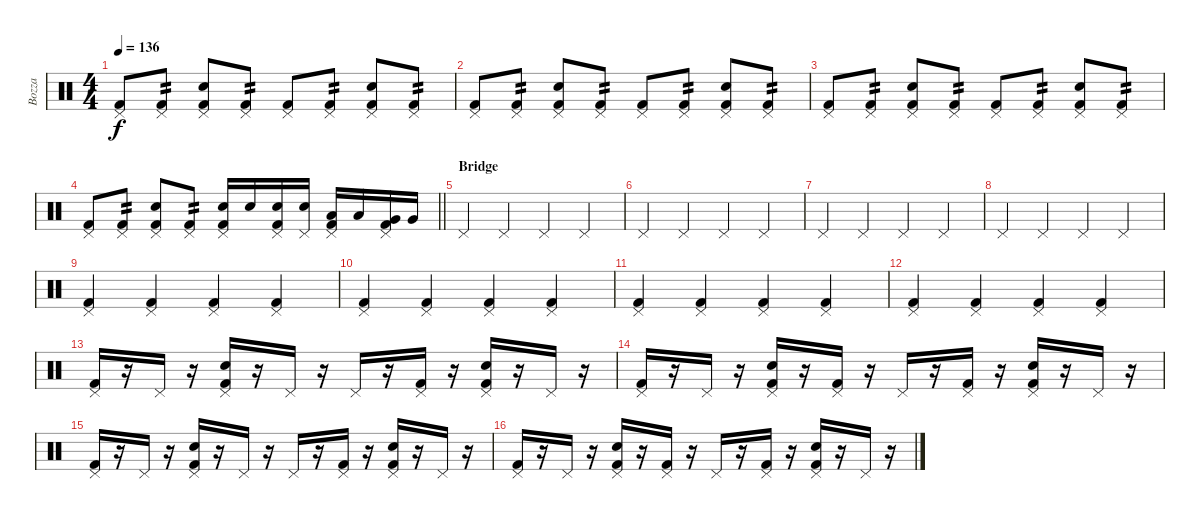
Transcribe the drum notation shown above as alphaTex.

\track ("Bozza" "Bozza") {instrument percussion}
\staff {score}
\articulation defaults
\ts (4 4)
\tempo 136
\clef neutral
\ks c
("Pedal Hi-Hat (hit)" "Kick (hit) 2").8{dy f} ("Pedal Hi-Hat (hit)" "Kick (hit) 2").8{tp 2} ("Pedal Hi-Hat (hit)" "Snare (hit) 2" "Kick (hit) 2").8 ("Pedal Hi-Hat (hit)" "Kick (hit) 2").8{tp 2} ("Pedal Hi-Hat (hit)" "Kick (hit) 2").8 ("Pedal Hi-Hat (hit)" "Kick (hit) 2").8{tp 2} ("Pedal Hi-Hat (hit)" "Snare (hit) 2" "Kick (hit) 2").8 ("Pedal Hi-Hat (hit)" "Kick (hit) 2").8{tp 2} |
("Pedal Hi-Hat (hit)" "Kick (hit) 2").8 ("Pedal Hi-Hat (hit)" "Kick (hit) 2").8{tp 2} ("Pedal Hi-Hat (hit)" "Snare (hit) 2" "Kick (hit) 2").8 ("Pedal Hi-Hat (hit)" "Kick (hit) 2").8{tp 2} ("Pedal Hi-Hat (hit)" "Kick (hit) 2").8 ("Pedal Hi-Hat (hit)" "Kick (hit) 2").8{tp 2} ("Pedal Hi-Hat (hit)" "Snare (hit) 2" "Kick (hit) 2").8 ("Pedal Hi-Hat (hit)" "Kick (hit) 2").8{tp 2} |
("Pedal Hi-Hat (hit)" "Kick (hit) 2").8 ("Pedal Hi-Hat (hit)" "Kick (hit) 2").8{tp 2} ("Pedal Hi-Hat (hit)" "Snare (hit) 2" "Kick (hit) 2").8 ("Pedal Hi-Hat (hit)" "Kick (hit) 2").8{tp 2} ("Pedal Hi-Hat (hit)" "Kick (hit) 2").8 ("Pedal Hi-Hat (hit)" "Kick (hit) 2").8{tp 2} ("Pedal Hi-Hat (hit)" "Snare (hit) 2" "Kick (hit) 2").8 ("Pedal Hi-Hat (hit)" "Kick (hit) 2").8{tp 2} |
\barLineRight lightlight
("Pedal Hi-Hat (hit)" "Kick (hit) 2").8 ("Pedal Hi-Hat (hit)" "Kick (hit) 2").8{tp 2} ("Pedal Hi-Hat (hit)" "Snare (hit) 2" "Kick (hit) 2").8 ("Pedal Hi-Hat (hit)" "Kick (hit) 2").8{tp 2} ("Pedal Hi-Hat (hit)" "Snare (hit) 2" "Kick (hit) 2").16 "Snare (hit) 2".16 ("Pedal Hi-Hat (hit)" "Snare (hit) 2" "Kick (hit) 2").16 ("Pedal Hi-Hat (hit)" "Snare (hit) 2").16 ("Pedal Hi-Hat (hit)" "Low Tom (hit)" "Kick (hit) 2").16 "Low Tom (hit)".16 ("Pedal Hi-Hat (hit)" "Very Low Tom (hit)" "Kick (hit) 2").16 "Very Low Tom (hit)".16 |
\section ("" "Bridge")
"Pedal Hi-Hat (hit)".4 "Pedal Hi-Hat (hit)".4 "Pedal Hi-Hat (hit)".4 "Pedal Hi-Hat (hit)".4 |
"Pedal Hi-Hat (hit)".4 "Pedal Hi-Hat (hit)".4 "Pedal Hi-Hat (hit)".4 "Pedal Hi-Hat (hit)".4 |
"Pedal Hi-Hat (hit)".4 "Pedal Hi-Hat (hit)".4 "Pedal Hi-Hat (hit)".4 "Pedal Hi-Hat (hit)".4 |
"Pedal Hi-Hat (hit)".4 "Pedal Hi-Hat (hit)".4 "Pedal Hi-Hat (hit)".4 "Pedal Hi-Hat (hit)".4 |
("Pedal Hi-Hat (hit)" "Kick (hit) 2").4 ("Pedal Hi-Hat (hit)" "Kick (hit) 2").4 ("Pedal Hi-Hat (hit)" "Kick (hit) 2").4 ("Pedal Hi-Hat (hit)" "Kick (hit) 2").4 |
("Pedal Hi-Hat (hit)" "Kick (hit) 2").4 ("Pedal Hi-Hat (hit)" "Kick (hit) 2").4 ("Pedal Hi-Hat (hit)" "Kick (hit) 2").4 ("Pedal Hi-Hat (hit)" "Kick (hit) 2").4 |
("Pedal Hi-Hat (hit)" "Kick (hit) 2").4 ("Pedal Hi-Hat (hit)" "Kick (hit) 2").4 ("Pedal Hi-Hat (hit)" "Kick (hit) 2").4 ("Pedal Hi-Hat (hit)" "Kick (hit) 2").4 |
("Pedal Hi-Hat (hit)" "Kick (hit) 2").4 ("Pedal Hi-Hat (hit)" "Kick (hit) 2").4 ("Pedal Hi-Hat (hit)" "Kick (hit) 2").4 ("Pedal Hi-Hat (hit)" "Kick (hit) 2").4 |
("Pedal Hi-Hat (hit)" "Kick (hit) 2").16 r.16 "Pedal Hi-Hat (hit)".16 r.16 ("Pedal Hi-Hat (hit)" "Snare (hit) 2" "Kick (hit) 2").16 r.16 "Pedal Hi-Hat (hit)".16 r.16 "Pedal Hi-Hat (hit)".16 r.16 ("Pedal Hi-Hat (hit)" "Kick (hit) 2").16 r.16 ("Pedal Hi-Hat (hit)" "Snare (hit) 2" "Kick (hit) 2").16 r.16 "Pedal Hi-Hat (hit)".16 r.16 |
("Pedal Hi-Hat (hit)" "Kick (hit) 2").16 r.16 "Pedal Hi-Hat (hit)".16 r.16 ("Pedal Hi-Hat (hit)" "Snare (hit) 2" "Kick (hit) 2").16 r.16 ("Pedal Hi-Hat (hit)" "Kick (hit) 2").16 r.16 "Pedal Hi-Hat (hit)".16 r.16 ("Pedal Hi-Hat (hit)" "Kick (hit) 2").16 r.16 ("Pedal Hi-Hat (hit)" "Snare (hit) 2" "Kick (hit) 2").16 r.16 "Pedal Hi-Hat (hit)".16 r.16 |
("Pedal Hi-Hat (hit)" "Kick (hit) 2").16 r.16 "Pedal Hi-Hat (hit)".16 r.16 ("Pedal Hi-Hat (hit)" "Snare (hit) 2" "Kick (hit) 2").16 r.16 "Pedal Hi-Hat (hit)".16 r.16 "Pedal Hi-Hat (hit)".16 r.16 ("Pedal Hi-Hat (hit)" "Kick (hit) 2").16 r.16 ("Pedal Hi-Hat (hit)" "Snare (hit) 2" "Kick (hit) 2").16 r.16 "Pedal Hi-Hat (hit)".16 r.16 |
("Pedal Hi-Hat (hit)" "Kick (hit) 2").16 r.16 "Pedal Hi-Hat (hit)".16 r.16 ("Pedal Hi-Hat (hit)" "Snare (hit) 2" "Kick (hit) 2").16 r.16 ("Pedal Hi-Hat (hit)" "Kick (hit) 2").16 r.16 "Pedal Hi-Hat (hit)".16 r.16 ("Pedal Hi-Hat (hit)" "Kick (hit) 2").16 r.16 ("Pedal Hi-Hat (hit)" "Snare (hit) 2" "Kick (hit) 2").16 r.16 "Pedal Hi-Hat (hit)".16 r.16
